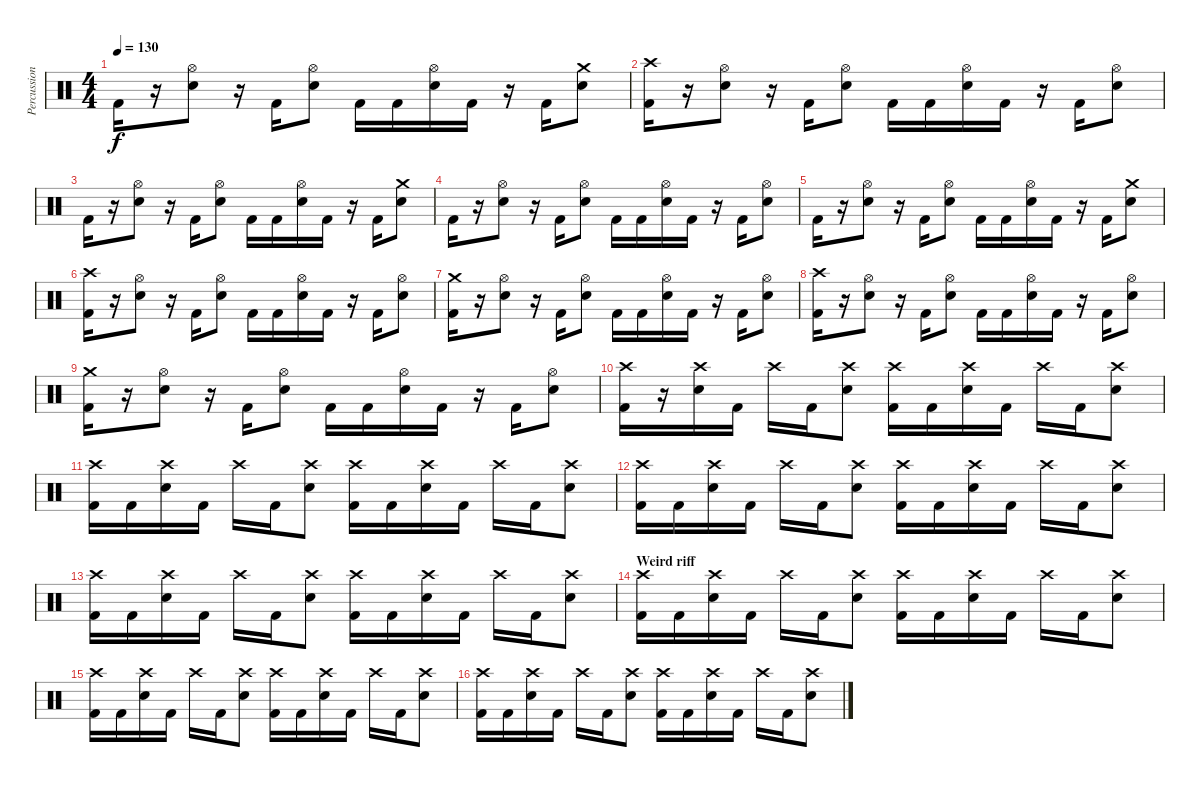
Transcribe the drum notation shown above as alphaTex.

\track ("Percussion" "Percussion") {instrument percussion}
\staff {score}
\articulation defaults
\ts (4 4)
\tempo 130
\clef neutral
\ks c "Kick (hit) 2".16{dy f}
r.16 ("Electric Snare (hit)" "Hi-Hat (open)").8 r.16 "Kick (hit) 2".16 ("Electric Snare (hit)" "Hi-Hat (open)").8 "Kick (hit) 2".16 "Kick (hit) 2".16 ("Electric Snare (hit)" "Hi-Hat (open)").16 "Kick (hit) 2".16 r.16 "Kick (hit) 2".16 ("Electric Snare (hit)" "Crash medium (hit)").8 |
("Kick (hit) 2" "Crash high (hit)").16 r.16 ("Electric Snare (hit)" "Hi-Hat (open)").8 r.16 "Kick (hit) 2".16 ("Electric Snare (hit)" "Hi-Hat (open)").8 "Kick (hit) 2".16 "Kick (hit) 2".16 ("Electric Snare (hit)" "Hi-Hat (open)").16 "Kick (hit) 2".16 r.16 "Kick (hit) 2".16 ("Electric Snare (hit)" "Hi-Hat (open)").8 |
"Kick (hit) 2".16 r.16 ("Electric Snare (hit)" "Hi-Hat (open)").8 r.16 "Kick (hit) 2".16 ("Electric Snare (hit)" "Hi-Hat (open)").8 "Kick (hit) 2".16 "Kick (hit) 2".16 ("Electric Snare (hit)" "Hi-Hat (open)").16 "Kick (hit) 2".16 r.16 "Kick (hit) 2".16 ("Electric Snare (hit)" "Crash medium (hit)").8 |
"Kick (hit) 2".16 r.16 ("Electric Snare (hit)" "Hi-Hat (open)").8 r.16 "Kick (hit) 2".16 ("Electric Snare (hit)" "Hi-Hat (open)").8 "Kick (hit) 2".16 "Kick (hit) 2".16 ("Electric Snare (hit)" "Hi-Hat (open)").16 "Kick (hit) 2".16 r.16 "Kick (hit) 2".16 ("Electric Snare (hit)" "Hi-Hat (open)").8 |
"Kick (hit) 2".16 r.16 ("Electric Snare (hit)" "Hi-Hat (open)").8 r.16 "Kick (hit) 2".16 ("Electric Snare (hit)" "Hi-Hat (open)").8 "Kick (hit) 2".16 "Kick (hit) 2".16 ("Electric Snare (hit)" "Hi-Hat (open)").16 "Kick (hit) 2".16 r.16 "Kick (hit) 2".16 ("Electric Snare (hit)" "Crash medium (hit)").8 |
("Kick (hit) 2" "Crash high (hit)").16 r.16 ("Electric Snare (hit)" "Hi-Hat (open)").8 r.16 "Kick (hit) 2".16 ("Electric Snare (hit)" "Hi-Hat (open)").8 "Kick (hit) 2".16 "Kick (hit) 2".16 ("Electric Snare (hit)" "Hi-Hat (open)").16 "Kick (hit) 2".16 r.16 "Kick (hit) 2".16 ("Electric Snare (hit)" "Hi-Hat (open)").8 |
("Kick (hit) 2" "Crash medium (hit)").16 r.16 ("Electric Snare (hit)" "Hi-Hat (open)").8 r.16 "Kick (hit) 2".16 ("Electric Snare (hit)" "Hi-Hat (open)").8 "Kick (hit) 2".16 "Kick (hit) 2".16 ("Electric Snare (hit)" "Hi-Hat (open)").16 "Kick (hit) 2".16 r.16 "Kick (hit) 2".16 ("Electric Snare (hit)" "Hi-Hat (open)").8 |
("Kick (hit) 2" "Crash high (hit)").16 r.16 ("Electric Snare (hit)" "Hi-Hat (open)").8 r.16 "Kick (hit) 2".16 ("Electric Snare (hit)" "Hi-Hat (open)").8 "Kick (hit) 2".16 "Kick (hit) 2".16 ("Electric Snare (hit)" "Hi-Hat (open)").16 "Kick (hit) 2".16 r.16 "Kick (hit) 2".16 ("Electric Snare (hit)" "Hi-Hat (open)").8 |
("Kick (hit) 2" "Crash medium (hit)").16 r.16 ("Electric Snare (hit)" "Hi-Hat (open)").8 r.16 "Kick (hit) 2".16 ("Electric Snare (hit)" "Hi-Hat (open)").8 "Kick (hit) 2".16 "Kick (hit) 2".16 ("Electric Snare (hit)" "Hi-Hat (open)").16 "Kick (hit) 2".16 r.16 "Kick (hit) 2".16 ("Electric Snare (hit)" "Hi-Hat (open)").8 |
("Kick (hit) 2" "Crash high (hit)").16 r.16 ("Electric Snare (hit)" "Crash high (hit)").16 "Kick (hit) 2".16 "Crash high (hit)".16 "Kick (hit) 2".16 ("Electric Snare (hit)" "Crash high (hit)").8 ("Kick (hit) 2" "Crash high (hit)").16 "Kick (hit) 2".16 ("Electric Snare (hit)" "Crash high (hit)").16 "Kick (hit) 2".16 "Crash high (hit)".16 "Kick (hit) 2".16 ("Electric Snare (hit)" "Crash high (hit)").8 |
("Kick (hit) 2" "Crash high (hit)").16 "Kick (hit) 2".16 ("Electric Snare (hit)" "Crash high (hit)").16 "Kick (hit) 2".16 "Crash high (hit)".16 "Kick (hit) 2".16 ("Electric Snare (hit)" "Crash high (hit)").8 ("Kick (hit) 2" "Crash high (hit)").16 "Kick (hit) 2".16 ("Electric Snare (hit)" "Crash high (hit)").16 "Kick (hit) 2".16 "Crash high (hit)".16 "Kick (hit) 2".16 ("Electric Snare (hit)" "Crash high (hit)").8 |
("Kick (hit) 2" "Crash high (hit)").16 "Kick (hit) 2".16 ("Electric Snare (hit)" "Crash high (hit)").16 "Kick (hit) 2".16 "Crash high (hit)".16 "Kick (hit) 2".16 ("Electric Snare (hit)" "Crash high (hit)").8 ("Kick (hit) 2" "Crash high (hit)").16 "Kick (hit) 2".16 ("Electric Snare (hit)" "Crash high (hit)").16 "Kick (hit) 2".16 "Crash high (hit)".16 "Kick (hit) 2".16 ("Electric Snare (hit)" "Crash high (hit)").8 |
("Kick (hit) 2" "Crash high (hit)").16 "Kick (hit) 2".16 ("Electric Snare (hit)" "Crash high (hit)").16 "Kick (hit) 2".16 "Crash high (hit)".16 "Kick (hit) 2".16 ("Electric Snare (hit)" "Crash high (hit)").8 ("Kick (hit) 2" "Crash high (hit)").16 "Kick (hit) 2".16 ("Electric Snare (hit)" "Crash high (hit)").16 "Kick (hit) 2".16 "Crash high (hit)".16 "Kick (hit) 2".16 ("Electric Snare (hit)" "Crash high (hit)").8 |
\section ("" "Weird riff")
("Kick (hit) 2" "Crash high (hit)").16 "Kick (hit) 2".16 ("Electric Snare (hit)" "Crash high (hit)").16 "Kick (hit) 2".16 "Crash high (hit)".16 "Kick (hit) 2".16 ("Electric Snare (hit)" "Crash high (hit)").8 ("Kick (hit) 2" "Crash high (hit)").16 "Kick (hit) 2".16 ("Electric Snare (hit)" "Crash high (hit)").16 "Kick (hit) 2".16 "Crash high (hit)".16 "Kick (hit) 2".16 ("Electric Snare (hit)" "Crash high (hit)").8 |
("Kick (hit) 2" "Crash high (hit)").16 "Kick (hit) 2".16 ("Electric Snare (hit)" "Crash high (hit)").16 "Kick (hit) 2".16 "Crash high (hit)".16 "Kick (hit) 2".16 ("Electric Snare (hit)" "Crash high (hit)").8 ("Kick (hit) 2" "Crash high (hit)").16 "Kick (hit) 2".16 ("Electric Snare (hit)" "Crash high (hit)").16 "Kick (hit) 2".16 "Crash high (hit)".16 "Kick (hit) 2".16 ("Electric Snare (hit)" "Crash high (hit)").8 |
("Kick (hit) 2" "Crash high (hit)").16 "Kick (hit) 2".16 ("Electric Snare (hit)" "Crash high (hit)").16 "Kick (hit) 2".16 "Crash high (hit)".16 "Kick (hit) 2".16 ("Electric Snare (hit)" "Crash high (hit)").8 ("Kick (hit) 2" "Crash high (hit)").16 "Kick (hit) 2".16 ("Electric Snare (hit)" "Crash high (hit)").16 "Kick (hit) 2".16 "Crash high (hit)".16 "Kick (hit) 2".16 ("Electric Snare (hit)" "Crash high (hit)").8
